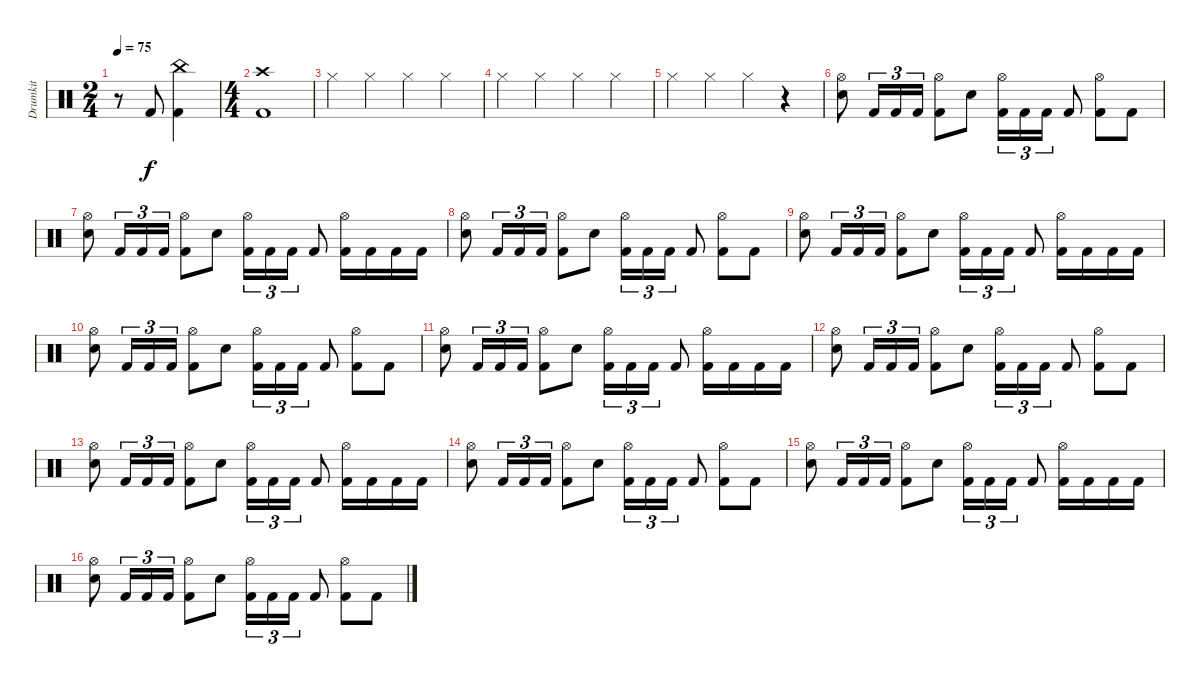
\track ("Drumkit" "Drumkit") {instrument percussion}
\staff {score}
\articulation defaults
\ts (2 4)
\tempo 75
\clef neutral
\ks c
r.8{dy f} "Kick (hit) 2".8 ("China (hit)" "Kick (hit) 2").4 |
\ts (4 4)
("Crash high (hit)" "Kick (hit) 2").1 |
"Hi-Hat (closed)".4 "Hi-Hat (closed)".4 "Hi-Hat (closed)".4 "Hi-Hat (closed)".4 |
"Hi-Hat (closed)".4 "Hi-Hat (closed)".4 "Hi-Hat (closed)".4 "Hi-Hat (closed)".4 |
"Hi-Hat (closed)".4 "Hi-Hat (closed)".4 "Hi-Hat (closed)".4 r.4 |
("Hi-Hat (open)" "Snare (hit) 2").8 "Kick (hit) 2".16{tu (3 2)} "Kick (hit) 2".16{tu (3 2)} "Kick (hit) 2".16{tu (3 2)} ("Hi-Hat (open)" "Kick (hit) 2").8 "Snare (hit) 2".8 ("Hi-Hat (open)" "Kick (hit) 2").16{tu (3 2)} "Kick (hit) 2".16{tu (3 2)} "Kick (hit) 2".16{tu (3 2)} "Kick (hit) 2".8 ("Hi-Hat (open)" "Kick (hit) 2").8 "Kick (hit) 2".8 |
("Hi-Hat (open)" "Snare (hit) 2").8 "Kick (hit) 2".16{tu (3 2)} "Kick (hit) 2".16{tu (3 2)} "Kick (hit) 2".16{tu (3 2)} ("Hi-Hat (open)" "Kick (hit) 2").8 "Snare (hit) 2".8 ("Hi-Hat (open)" "Kick (hit) 2").16{tu (3 2)} "Kick (hit) 2".16{tu (3 2)} "Kick (hit) 2".16{tu (3 2)} "Kick (hit) 2".8 ("Hi-Hat (open)" "Kick (hit) 2").16 "Kick (hit) 2".16 "Kick (hit) 2".16 "Kick (hit) 2".16 |
("Hi-Hat (open)" "Snare (hit) 2").8 "Kick (hit) 2".16{tu (3 2)} "Kick (hit) 2".16{tu (3 2)} "Kick (hit) 2".16{tu (3 2)} ("Hi-Hat (open)" "Kick (hit) 2").8 "Snare (hit) 2".8 ("Hi-Hat (open)" "Kick (hit) 2").16{tu (3 2)} "Kick (hit) 2".16{tu (3 2)} "Kick (hit) 2".16{tu (3 2)} "Kick (hit) 2".8 ("Hi-Hat (open)" "Kick (hit) 2").8 "Kick (hit) 2".8 |
("Hi-Hat (open)" "Snare (hit) 2").8 "Kick (hit) 2".16{tu (3 2)} "Kick (hit) 2".16{tu (3 2)} "Kick (hit) 2".16{tu (3 2)} ("Hi-Hat (open)" "Kick (hit) 2").8 "Snare (hit) 2".8 ("Hi-Hat (open)" "Kick (hit) 2").16{tu (3 2)} "Kick (hit) 2".16{tu (3 2)} "Kick (hit) 2".16{tu (3 2)} "Kick (hit) 2".8 ("Hi-Hat (open)" "Kick (hit) 2").16 "Kick (hit) 2".16 "Kick (hit) 2".16 "Kick (hit) 2".16 |
("Hi-Hat (open)" "Snare (hit) 2").8 "Kick (hit) 2".16{tu (3 2)} "Kick (hit) 2".16{tu (3 2)} "Kick (hit) 2".16{tu (3 2)} ("Hi-Hat (open)" "Kick (hit) 2").8 "Snare (hit) 2".8 ("Hi-Hat (open)" "Kick (hit) 2").16{tu (3 2)} "Kick (hit) 2".16{tu (3 2)} "Kick (hit) 2".16{tu (3 2)} "Kick (hit) 2".8 ("Hi-Hat (open)" "Kick (hit) 2").8 "Kick (hit) 2".8 |
("Hi-Hat (open)" "Snare (hit) 2").8 "Kick (hit) 2".16{tu (3 2)} "Kick (hit) 2".16{tu (3 2)} "Kick (hit) 2".16{tu (3 2)} ("Hi-Hat (open)" "Kick (hit) 2").8 "Snare (hit) 2".8 ("Hi-Hat (open)" "Kick (hit) 2").16{tu (3 2)} "Kick (hit) 2".16{tu (3 2)} "Kick (hit) 2".16{tu (3 2)} "Kick (hit) 2".8 ("Hi-Hat (open)" "Kick (hit) 2").16 "Kick (hit) 2".16 "Kick (hit) 2".16 "Kick (hit) 2".16 |
("Hi-Hat (open)" "Snare (hit) 2").8 "Kick (hit) 2".16{tu (3 2)} "Kick (hit) 2".16{tu (3 2)} "Kick (hit) 2".16{tu (3 2)} ("Hi-Hat (open)" "Kick (hit) 2").8 "Snare (hit) 2".8 ("Hi-Hat (open)" "Kick (hit) 2").16{tu (3 2)} "Kick (hit) 2".16{tu (3 2)} "Kick (hit) 2".16{tu (3 2)} "Kick (hit) 2".8 ("Hi-Hat (open)" "Kick (hit) 2").8 "Kick (hit) 2".8 |
("Hi-Hat (open)" "Snare (hit) 2").8 "Kick (hit) 2".16{tu (3 2)} "Kick (hit) 2".16{tu (3 2)} "Kick (hit) 2".16{tu (3 2)} ("Hi-Hat (open)" "Kick (hit) 2").8 "Snare (hit) 2".8 ("Hi-Hat (open)" "Kick (hit) 2").16{tu (3 2)} "Kick (hit) 2".16{tu (3 2)} "Kick (hit) 2".16{tu (3 2)} "Kick (hit) 2".8 ("Hi-Hat (open)" "Kick (hit) 2").16 "Kick (hit) 2".16 "Kick (hit) 2".16 "Kick (hit) 2".16 |
("Hi-Hat (open)" "Snare (hit) 2").8 "Kick (hit) 2".16{tu (3 2)} "Kick (hit) 2".16{tu (3 2)} "Kick (hit) 2".16{tu (3 2)} ("Hi-Hat (open)" "Kick (hit) 2").8 "Snare (hit) 2".8 ("Hi-Hat (open)" "Kick (hit) 2").16{tu (3 2)} "Kick (hit) 2".16{tu (3 2)} "Kick (hit) 2".16{tu (3 2)} "Kick (hit) 2".8 ("Hi-Hat (open)" "Kick (hit) 2").8 "Kick (hit) 2".8 |
("Hi-Hat (open)" "Snare (hit) 2").8 "Kick (hit) 2".16{tu (3 2)} "Kick (hit) 2".16{tu (3 2)} "Kick (hit) 2".16{tu (3 2)} ("Hi-Hat (open)" "Kick (hit) 2").8 "Snare (hit) 2".8 ("Hi-Hat (open)" "Kick (hit) 2").16{tu (3 2)} "Kick (hit) 2".16{tu (3 2)} "Kick (hit) 2".16{tu (3 2)} "Kick (hit) 2".8 ("Hi-Hat (open)" "Kick (hit) 2").16 "Kick (hit) 2".16 "Kick (hit) 2".16 "Kick (hit) 2".16 |
("Hi-Hat (open)" "Snare (hit) 2").8 "Kick (hit) 2".16{tu (3 2)} "Kick (hit) 2".16{tu (3 2)} "Kick (hit) 2".16{tu (3 2)} ("Hi-Hat (open)" "Kick (hit) 2").8 "Snare (hit) 2".8 ("Hi-Hat (open)" "Kick (hit) 2").16{tu (3 2)} "Kick (hit) 2".16{tu (3 2)} "Kick (hit) 2".16{tu (3 2)} "Kick (hit) 2".8 ("Hi-Hat (open)" "Kick (hit) 2").8 "Kick (hit) 2".8
